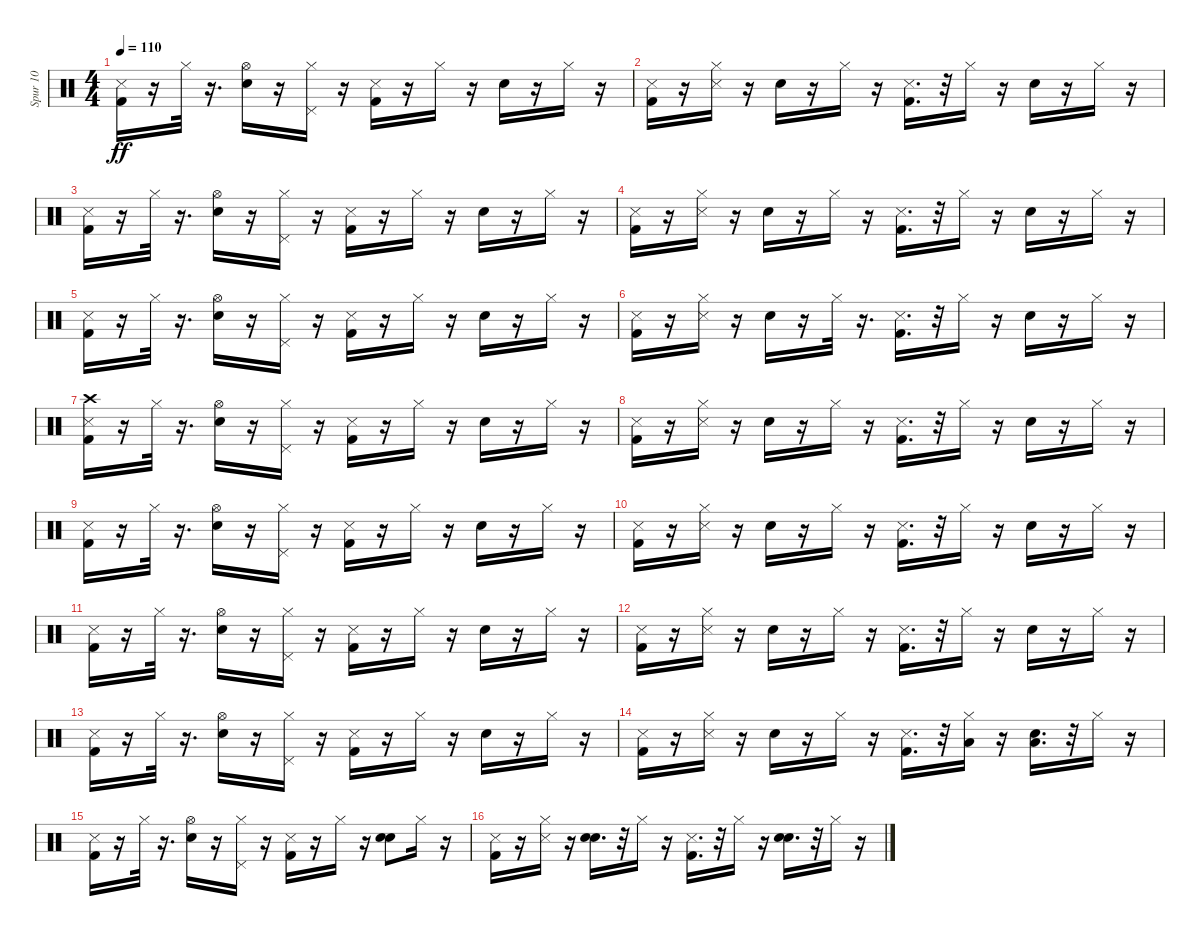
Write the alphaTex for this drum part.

\track ("Spur 10" "Spur 10") {instrument percussion}
\staff {score}
\articulation defaults
\ts (4 4)
\tempo 110
\clef neutral
\ks c
("Kick (hit) 2" "Snare (side stick) 3").16{dy ff} r.16 "Hi-Hat (closed)".32 r.16{d} ("Electric Snare (hit)" "Hi-Hat (open)").16 r.16 ("Hi-Hat (closed)" "Pedal Hi-Hat (hit)").16 r.16 ("Kick (hit) 2" "Snare (side stick) 3").16 r.16 "Hi-Hat (closed)".16 r.16 "Electric Snare (hit)".16 r.16 "Hi-Hat (closed)".16 r.16 |
("Kick (hit) 2" "Snare (side stick) 3").16 r.16 ("Snare (side stick) 3" "Hi-Hat (closed)").16 r.16 "Electric Snare (hit)".16 r.16 "Hi-Hat (closed)".16 r.16 ("Kick (hit) 2" "Snare (side stick) 3").16{d} r.32 "Hi-Hat (closed)".16 r.16 "Electric Snare (hit)".16 r.16 "Hi-Hat (closed)".16 r.16 |
("Kick (hit) 2" "Snare (side stick) 3").16 r.16 "Hi-Hat (closed)".32 r.16{d} ("Electric Snare (hit)" "Hi-Hat (open)").16 r.16 ("Hi-Hat (closed)" "Pedal Hi-Hat (hit)").16 r.16 ("Kick (hit) 2" "Snare (side stick) 3").16 r.16 "Hi-Hat (closed)".16 r.16 "Electric Snare (hit)".16 r.16 "Hi-Hat (closed)".16 r.16 |
("Kick (hit) 2" "Snare (side stick) 3").16 r.16 ("Snare (side stick) 3" "Hi-Hat (closed)").16 r.16 "Electric Snare (hit)".16 r.16 "Hi-Hat (closed)".16 r.16 ("Kick (hit) 2" "Snare (side stick) 3").16{d} r.32 "Hi-Hat (closed)".16 r.16 "Electric Snare (hit)".16 r.16 "Hi-Hat (closed)".16 r.16 |
("Kick (hit) 2" "Snare (side stick) 3").16 r.16 "Hi-Hat (closed)".32 r.16{d} ("Electric Snare (hit)" "Hi-Hat (open)").16 r.16 ("Hi-Hat (closed)" "Pedal Hi-Hat (hit)").16 r.16 ("Kick (hit) 2" "Snare (side stick) 3").16 r.16 "Hi-Hat (closed)".16 r.16 "Electric Snare (hit)".16 r.16 "Hi-Hat (closed)".16 r.16 |
("Kick (hit) 2" "Snare (side stick) 3").16 r.16 ("Snare (side stick) 3" "Hi-Hat (closed)").16 r.16 "Electric Snare (hit)".16 r.16 "Hi-Hat (closed)".32 r.16{d} ("Kick (hit) 2" "Snare (side stick) 3").16{d} r.32 "Hi-Hat (closed)".16 r.16 "Electric Snare (hit)".16 r.16 "Hi-Hat (closed)".16 r.16 |
("Kick (hit) 2" "Snare (side stick) 3" "Crash high (hit)").16 r.16 "Hi-Hat (closed)".32 r.16{d} ("Electric Snare (hit)" "Hi-Hat (open)").16 r.16 ("Hi-Hat (closed)" "Pedal Hi-Hat (hit)").16 r.16 ("Kick (hit) 2" "Snare (side stick) 3").16 r.16 "Hi-Hat (closed)".16 r.16 "Electric Snare (hit)".16 r.16 "Hi-Hat (closed)".16 r.16 |
("Kick (hit) 2" "Snare (side stick) 3").16 r.16 ("Snare (side stick) 3" "Hi-Hat (closed)").16 r.16 "Electric Snare (hit)".16 r.16 "Hi-Hat (closed)".16 r.16 ("Kick (hit) 2" "Snare (side stick) 3").16{d} r.32 "Hi-Hat (closed)".16 r.16 "Electric Snare (hit)".16 r.16 "Hi-Hat (closed)".16 r.16 |
("Kick (hit) 2" "Snare (side stick) 3").16 r.16 "Hi-Hat (closed)".32 r.16{d} ("Electric Snare (hit)" "Hi-Hat (open)").16 r.16 ("Hi-Hat (closed)" "Pedal Hi-Hat (hit)").16 r.16 ("Kick (hit) 2" "Snare (side stick) 3").16 r.16 "Hi-Hat (closed)".16 r.16 "Electric Snare (hit)".16 r.16 "Hi-Hat (closed)".16 r.16 |
("Kick (hit) 2" "Snare (side stick) 3").16 r.16 ("Snare (side stick) 3" "Hi-Hat (closed)").16 r.16 "Electric Snare (hit)".16 r.16 "Hi-Hat (closed)".16 r.16 ("Kick (hit) 2" "Snare (side stick) 3").16{d} r.32 "Hi-Hat (closed)".16 r.16 "Electric Snare (hit)".16 r.16 "Hi-Hat (closed)".16 r.16 |
("Kick (hit) 2" "Snare (side stick) 3").16 r.16 "Hi-Hat (closed)".32 r.16{d} ("Electric Snare (hit)" "Hi-Hat (open)").16 r.16 ("Hi-Hat (closed)" "Pedal Hi-Hat (hit)").16 r.16 ("Kick (hit) 2" "Snare (side stick) 3").16 r.16 "Hi-Hat (closed)".16 r.16 "Electric Snare (hit)".16 r.16 "Hi-Hat (closed)".16 r.16 |
("Kick (hit) 2" "Snare (side stick) 3").16 r.16 ("Snare (side stick) 3" "Hi-Hat (closed)").16 r.16 "Electric Snare (hit)".16 r.16 "Hi-Hat (closed)".16 r.16 ("Kick (hit) 2" "Snare (side stick) 3").16{d} r.32 "Hi-Hat (closed)".16 r.16 "Electric Snare (hit)".16 r.16 "Hi-Hat (closed)".16 r.16 |
("Kick (hit) 2" "Snare (side stick) 3").16 r.16 "Hi-Hat (closed)".32 r.16{d} ("Electric Snare (hit)" "Hi-Hat (open)").16 r.16 ("Hi-Hat (closed)" "Pedal Hi-Hat (hit)").16 r.16 ("Kick (hit) 2" "Snare (side stick) 3").16 r.16 "Hi-Hat (closed)".16 r.16 "Electric Snare (hit)".16 r.16 "Hi-Hat (closed)".16 r.16 |
("Kick (hit) 2" "Snare (side stick) 3").16 r.16 ("Snare (side stick) 3" "Hi-Hat (closed)").16 r.16 "Electric Snare (hit)".16 r.16 "Hi-Hat (closed)".16 r.16 ("Kick (hit) 2" "Snare (side stick) 3").16{d} r.32 ("Hi-Hat (closed)" "Low Tom (hit)").16 r.16 ("Electric Snare (hit)" "Low Floor Tom (hit)").16{d} r.32 "Hi-Hat (closed)".16 r.16 |
("Kick (hit) 2" "Snare (side stick) 3").16 r.16 "Hi-Hat (closed)".32 r.16{d} ("Electric Snare (hit)" "Hi-Hat (open)").16 r.16 ("Hi-Hat (closed)" "Pedal Hi-Hat (hit)").16 r.16 ("Kick (hit) 2" "Snare (side stick) 3").16 r.16 "Hi-Hat (closed)".16 r.16 ("Electric Snare (hit)" "Hand Clap (hit)").8 "Hi-Hat (closed)".16 r.16 |
("Kick (hit) 2" "Snare (side stick) 3").16 r.16 ("Snare (side stick) 3" "Hi-Hat (closed)").16 r.16 ("Hand Clap (hit)" "Electric Snare (hit)").16{d} r.32 "Hi-Hat (closed)".16 r.16 ("Kick (hit) 2" "Snare (side stick) 3").16{d} r.32 "Hi-Hat (closed)".16 r.16 ("Hand Clap (hit)" "Electric Snare (hit)").16{d} r.32 "Hi-Hat (closed)".16 r.16
